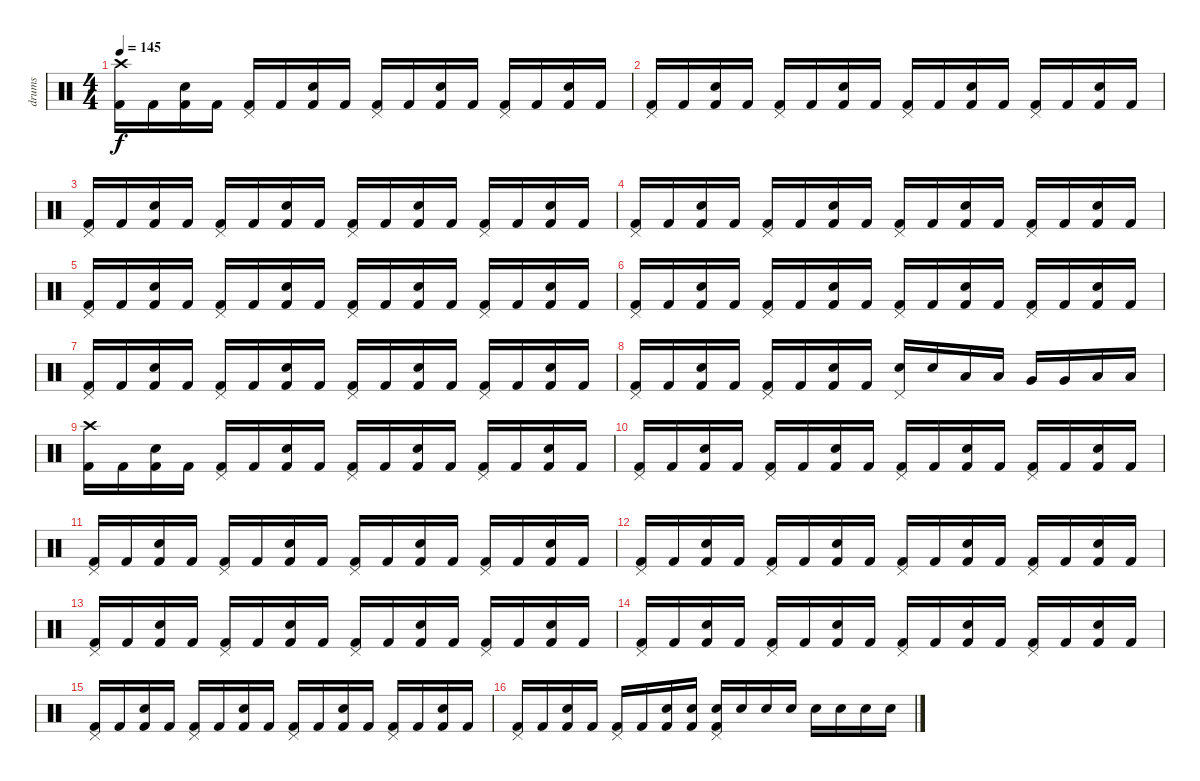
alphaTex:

\track ("drums" "drums") {instrument percussion}
\staff {score}
\articulation defaults
\ts (4 4)
\tempo 145
\clef neutral
\ks c
("Crash high (hit)" "Kick (hit) 2").16{dy f} "Kick (hit) 2".16 ("Electric Snare (hit)" "Kick (hit) 2").16 "Kick (hit) 2".16 ("Pedal Hi-Hat (hit)" "Kick (hit) 2").16 "Kick (hit) 2".16 ("Electric Snare (hit)" "Kick (hit) 2").16 "Kick (hit) 2".16 ("Pedal Hi-Hat (hit)" "Kick (hit) 2").16 "Kick (hit) 2".16 ("Electric Snare (hit)" "Kick (hit) 2").16 "Kick (hit) 2".16 ("Pedal Hi-Hat (hit)" "Kick (hit) 2").16 "Kick (hit) 2".16 ("Electric Snare (hit)" "Kick (hit) 2").16 "Kick (hit) 2".16 |
("Pedal Hi-Hat (hit)" "Kick (hit) 2").16 "Kick (hit) 2".16 ("Electric Snare (hit)" "Kick (hit) 2").16 "Kick (hit) 2".16 ("Pedal Hi-Hat (hit)" "Kick (hit) 2").16 "Kick (hit) 2".16 ("Electric Snare (hit)" "Kick (hit) 2").16 "Kick (hit) 2".16 ("Pedal Hi-Hat (hit)" "Kick (hit) 2").16 "Kick (hit) 2".16 ("Electric Snare (hit)" "Kick (hit) 2").16 "Kick (hit) 2".16 ("Pedal Hi-Hat (hit)" "Kick (hit) 2").16 "Kick (hit) 2".16 ("Electric Snare (hit)" "Kick (hit) 2").16 "Kick (hit) 2".16 |
("Pedal Hi-Hat (hit)" "Kick (hit) 2").16 "Kick (hit) 2".16 ("Electric Snare (hit)" "Kick (hit) 2").16 "Kick (hit) 2".16 ("Pedal Hi-Hat (hit)" "Kick (hit) 2").16 "Kick (hit) 2".16 ("Electric Snare (hit)" "Kick (hit) 2").16 "Kick (hit) 2".16 ("Pedal Hi-Hat (hit)" "Kick (hit) 2").16 "Kick (hit) 2".16 ("Electric Snare (hit)" "Kick (hit) 2").16 "Kick (hit) 2".16 ("Pedal Hi-Hat (hit)" "Kick (hit) 2").16 "Kick (hit) 2".16 ("Electric Snare (hit)" "Kick (hit) 2").16 "Kick (hit) 2".16 |
("Pedal Hi-Hat (hit)" "Kick (hit) 2").16 "Kick (hit) 2".16 ("Electric Snare (hit)" "Kick (hit) 2").16 "Kick (hit) 2".16 ("Pedal Hi-Hat (hit)" "Kick (hit) 2").16 "Kick (hit) 2".16 ("Electric Snare (hit)" "Kick (hit) 2").16 "Kick (hit) 2".16 ("Pedal Hi-Hat (hit)" "Kick (hit) 2").16 "Kick (hit) 2".16 ("Electric Snare (hit)" "Kick (hit) 2").16 "Kick (hit) 2".16 ("Pedal Hi-Hat (hit)" "Kick (hit) 2").16 "Kick (hit) 2".16 ("Electric Snare (hit)" "Kick (hit) 2").16 "Kick (hit) 2".16 |
("Pedal Hi-Hat (hit)" "Kick (hit) 2").16 "Kick (hit) 2".16 ("Electric Snare (hit)" "Kick (hit) 2").16 "Kick (hit) 2".16 ("Pedal Hi-Hat (hit)" "Kick (hit) 2").16 "Kick (hit) 2".16 ("Electric Snare (hit)" "Kick (hit) 2").16 "Kick (hit) 2".16 ("Pedal Hi-Hat (hit)" "Kick (hit) 2").16 "Kick (hit) 2".16 ("Electric Snare (hit)" "Kick (hit) 2").16 "Kick (hit) 2".16 ("Pedal Hi-Hat (hit)" "Kick (hit) 2").16 "Kick (hit) 2".16 ("Electric Snare (hit)" "Kick (hit) 2").16 "Kick (hit) 2".16 |
("Pedal Hi-Hat (hit)" "Kick (hit) 2").16 "Kick (hit) 2".16 ("Electric Snare (hit)" "Kick (hit) 2").16 "Kick (hit) 2".16 ("Pedal Hi-Hat (hit)" "Kick (hit) 2").16 "Kick (hit) 2".16 ("Electric Snare (hit)" "Kick (hit) 2").16 "Kick (hit) 2".16 ("Pedal Hi-Hat (hit)" "Kick (hit) 2").16 "Kick (hit) 2".16 ("Electric Snare (hit)" "Kick (hit) 2").16 "Kick (hit) 2".16 ("Pedal Hi-Hat (hit)" "Kick (hit) 2").16 "Kick (hit) 2".16 ("Electric Snare (hit)" "Kick (hit) 2").16 "Kick (hit) 2".16 |
("Pedal Hi-Hat (hit)" "Kick (hit) 2").16 "Kick (hit) 2".16 ("Electric Snare (hit)" "Kick (hit) 2").16 "Kick (hit) 2".16 ("Pedal Hi-Hat (hit)" "Kick (hit) 2").16 "Kick (hit) 2".16 ("Electric Snare (hit)" "Kick (hit) 2").16 "Kick (hit) 2".16 ("Pedal Hi-Hat (hit)" "Kick (hit) 2").16 "Kick (hit) 2".16 ("Electric Snare (hit)" "Kick (hit) 2").16 "Kick (hit) 2".16 ("Pedal Hi-Hat (hit)" "Kick (hit) 2").16 "Kick (hit) 2".16 ("Electric Snare (hit)" "Kick (hit) 2").16 "Kick (hit) 2".16 |
("Pedal Hi-Hat (hit)" "Kick (hit) 2").16 "Kick (hit) 2".16 ("Electric Snare (hit)" "Kick (hit) 2").16 "Kick (hit) 2".16 ("Pedal Hi-Hat (hit)" "Kick (hit) 2").16 "Kick (hit) 2".16 ("Electric Snare (hit)" "Kick (hit) 2").16 "Kick (hit) 2".16 ("Pedal Hi-Hat (hit)" "Snare (hit) 2").16 "Snare (hit) 2".16 "Low Tom (hit)".16 "Low Tom (hit)".16 "Very Low Tom (hit)".16 "Very Low Tom (hit)".16 "Low Floor Tom (hit)".16 "Low Floor Tom (hit)".16 |
("Crash high (hit)" "Kick (hit) 2").16 "Kick (hit) 2".16 ("Electric Snare (hit)" "Kick (hit) 2").16 "Kick (hit) 2".16 ("Pedal Hi-Hat (hit)" "Kick (hit) 2").16 "Kick (hit) 2".16 ("Electric Snare (hit)" "Kick (hit) 2").16 "Kick (hit) 2".16 ("Pedal Hi-Hat (hit)" "Kick (hit) 2").16 "Kick (hit) 2".16 ("Electric Snare (hit)" "Kick (hit) 2").16 "Kick (hit) 2".16 ("Pedal Hi-Hat (hit)" "Kick (hit) 2").16 "Kick (hit) 2".16 ("Electric Snare (hit)" "Kick (hit) 2").16 "Kick (hit) 2".16 |
("Pedal Hi-Hat (hit)" "Kick (hit) 2").16 "Kick (hit) 2".16 ("Electric Snare (hit)" "Kick (hit) 2").16 "Kick (hit) 2".16 ("Pedal Hi-Hat (hit)" "Kick (hit) 2").16 "Kick (hit) 2".16 ("Electric Snare (hit)" "Kick (hit) 2").16 "Kick (hit) 2".16 ("Pedal Hi-Hat (hit)" "Kick (hit) 2").16 "Kick (hit) 2".16 ("Electric Snare (hit)" "Kick (hit) 2").16 "Kick (hit) 2".16 ("Pedal Hi-Hat (hit)" "Kick (hit) 2").16 "Kick (hit) 2".16 ("Electric Snare (hit)" "Kick (hit) 2").16 "Kick (hit) 2".16 |
("Pedal Hi-Hat (hit)" "Kick (hit) 2").16 "Kick (hit) 2".16 ("Electric Snare (hit)" "Kick (hit) 2").16 "Kick (hit) 2".16 ("Pedal Hi-Hat (hit)" "Kick (hit) 2").16 "Kick (hit) 2".16 ("Electric Snare (hit)" "Kick (hit) 2").16 "Kick (hit) 2".16 ("Pedal Hi-Hat (hit)" "Kick (hit) 2").16 "Kick (hit) 2".16 ("Electric Snare (hit)" "Kick (hit) 2").16 "Kick (hit) 2".16 ("Pedal Hi-Hat (hit)" "Kick (hit) 2").16 "Kick (hit) 2".16 ("Electric Snare (hit)" "Kick (hit) 2").16 "Kick (hit) 2".16 |
("Pedal Hi-Hat (hit)" "Kick (hit) 2").16 "Kick (hit) 2".16 ("Electric Snare (hit)" "Kick (hit) 2").16 "Kick (hit) 2".16 ("Pedal Hi-Hat (hit)" "Kick (hit) 2").16 "Kick (hit) 2".16 ("Electric Snare (hit)" "Kick (hit) 2").16 "Kick (hit) 2".16 ("Pedal Hi-Hat (hit)" "Kick (hit) 2").16 "Kick (hit) 2".16 ("Electric Snare (hit)" "Kick (hit) 2").16 "Kick (hit) 2".16 ("Pedal Hi-Hat (hit)" "Kick (hit) 2").16 "Kick (hit) 2".16 ("Electric Snare (hit)" "Kick (hit) 2").16 "Kick (hit) 2".16 |
("Pedal Hi-Hat (hit)" "Kick (hit) 2").16 "Kick (hit) 2".16 ("Electric Snare (hit)" "Kick (hit) 2").16 "Kick (hit) 2".16 ("Pedal Hi-Hat (hit)" "Kick (hit) 2").16 "Kick (hit) 2".16 ("Electric Snare (hit)" "Kick (hit) 2").16 "Kick (hit) 2".16 ("Pedal Hi-Hat (hit)" "Kick (hit) 2").16 "Kick (hit) 2".16 ("Electric Snare (hit)" "Kick (hit) 2").16 "Kick (hit) 2".16 ("Pedal Hi-Hat (hit)" "Kick (hit) 2").16 "Kick (hit) 2".16 ("Electric Snare (hit)" "Kick (hit) 2").16 "Kick (hit) 2".16 |
("Pedal Hi-Hat (hit)" "Kick (hit) 2").16 "Kick (hit) 2".16 ("Electric Snare (hit)" "Kick (hit) 2").16 "Kick (hit) 2".16 ("Pedal Hi-Hat (hit)" "Kick (hit) 2").16 "Kick (hit) 2".16 ("Electric Snare (hit)" "Kick (hit) 2").16 "Kick (hit) 2".16 ("Pedal Hi-Hat (hit)" "Kick (hit) 2").16 "Kick (hit) 2".16 ("Electric Snare (hit)" "Kick (hit) 2").16 "Kick (hit) 2".16 ("Pedal Hi-Hat (hit)" "Kick (hit) 2").16 "Kick (hit) 2".16 ("Electric Snare (hit)" "Kick (hit) 2").16 "Kick (hit) 2".16 |
("Pedal Hi-Hat (hit)" "Kick (hit) 2").16 "Kick (hit) 2".16 ("Electric Snare (hit)" "Kick (hit) 2").16 "Kick (hit) 2".16 ("Pedal Hi-Hat (hit)" "Kick (hit) 2").16 "Kick (hit) 2".16 ("Electric Snare (hit)" "Kick (hit) 2").16 "Kick (hit) 2".16 ("Pedal Hi-Hat (hit)" "Kick (hit) 2").16 "Kick (hit) 2".16 ("Electric Snare (hit)" "Kick (hit) 2").16 "Kick (hit) 2".16 ("Pedal Hi-Hat (hit)" "Kick (hit) 2").16 "Kick (hit) 2".16 ("Electric Snare (hit)" "Kick (hit) 2").16 "Kick (hit) 2".16 |
("Pedal Hi-Hat (hit)" "Kick (hit) 2").16 "Kick (hit) 2".16 ("Electric Snare (hit)" "Kick (hit) 2").16 "Kick (hit) 2".16 ("Pedal Hi-Hat (hit)" "Kick (hit) 2").16 "Kick (hit) 2".16 ("Electric Snare (hit)" "Kick (hit) 2").16 ("Electric Snare (hit)" "Kick (hit) 2").16 ("Pedal Hi-Hat (hit)" "Electric Snare (hit)" "Kick (hit) 2").16 "Electric Snare (hit)".16 "Electric Snare (hit)".16 "Electric Snare (hit)".16 "Electric Snare (hit)".16 "Electric Snare (hit)".16 "Electric Snare (hit)".16 "Electric Snare (hit)".16
